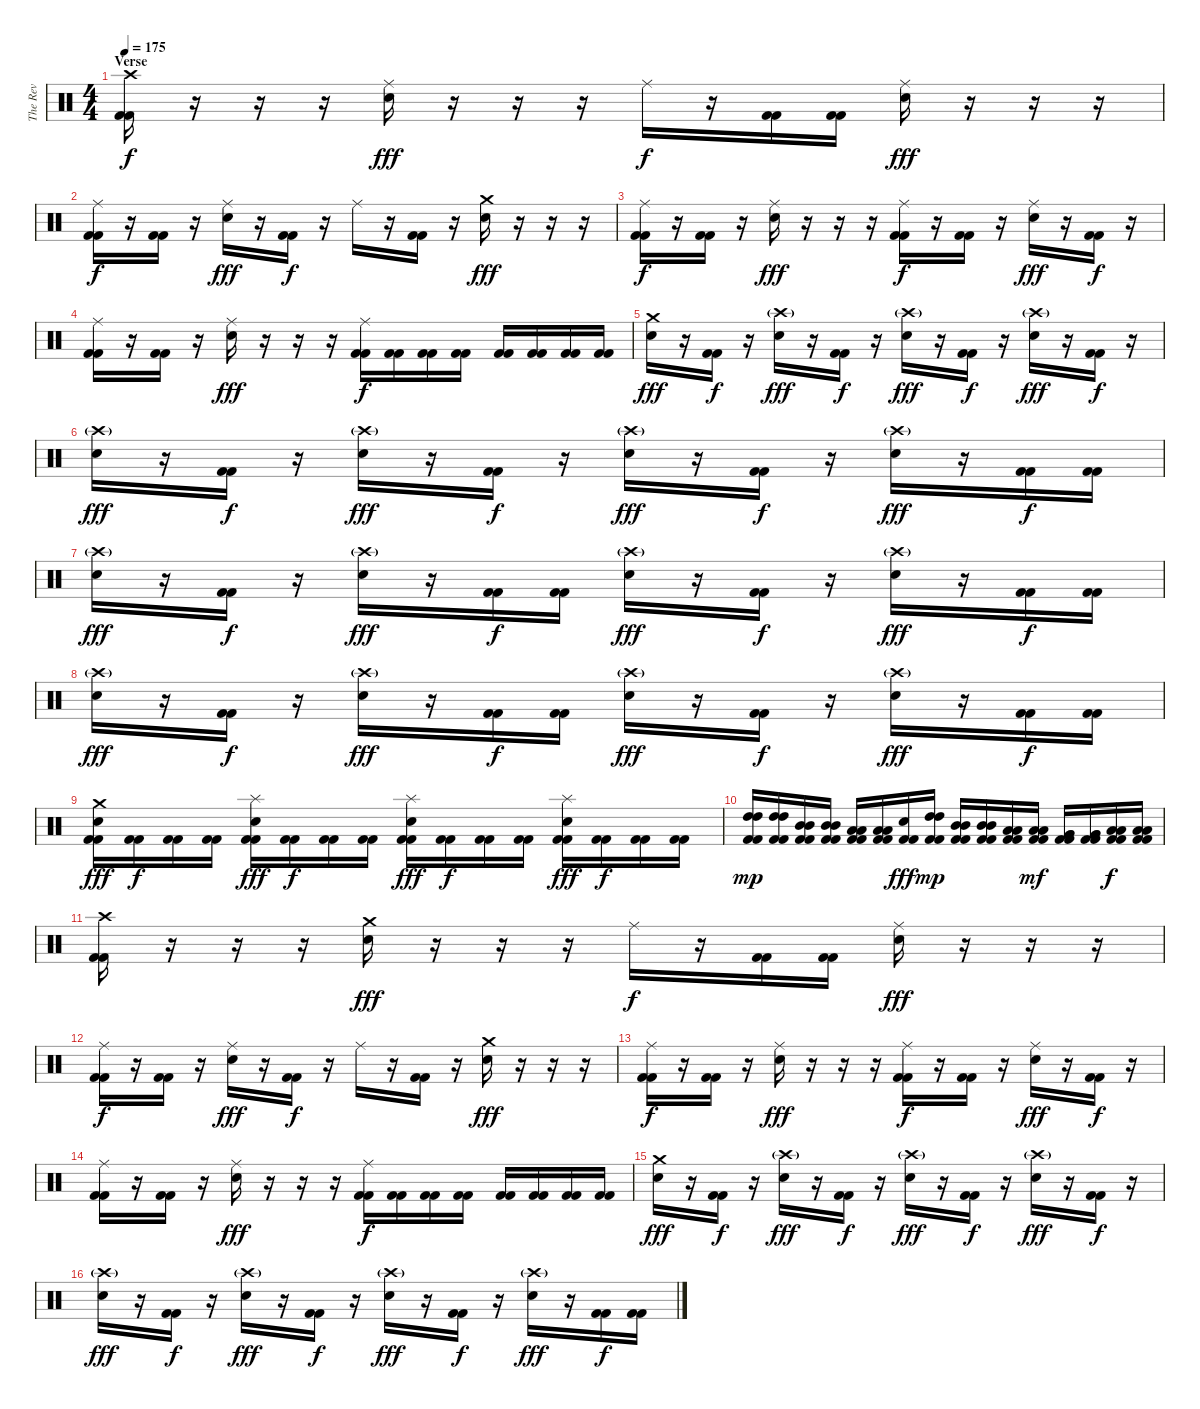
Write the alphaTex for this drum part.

\track ("The Rev" "The Rev") {instrument percussion}
\staff {score}
\articulation defaults
\ts (4 4)
\section ("" "Verse")
\tempo 175
\clef neutral
\ks c
("Crash high (hit)" "Kick (hit) 2" "Kick (hit) 2").16{dy f} r.16 r.16 r.16 ("Ride (middle)" "Electric Snare (hit)").16{dy fff} r.16 r.16 r.16 "Ride (middle)".16{dy f} r.16 ("Kick (hit) 2" "Kick (hit) 2").16 ("Kick (hit) 2" "Kick (hit) 2").16 ("Ride (middle)" "Electric Snare (hit)").16{dy fff} r.16 r.16 r.16 |
("Ride (middle)" "Kick (hit) 2" "Kick (hit) 2").16{dy f} r.16 ("Kick (hit) 2" "Kick (hit) 2").16 r.16 ("Ride (middle)" "Electric Snare (hit)").16{dy fff} r.16 ("Kick (hit) 2" "Kick (hit) 2").16{dy f} r.16 "Ride (middle)".16 r.16 ("Kick (hit) 2" "Kick (hit) 2").16 r.16 ("Crash medium (hit)" "Electric Snare (hit)").16{dy fff} r.16 r.16 r.16 |
("Ride (middle)" "Kick (hit) 2" "Kick (hit) 2").16{dy f} r.16 ("Kick (hit) 2" "Kick (hit) 2").16 r.16 ("Ride (middle)" "Electric Snare (hit)").16{dy fff} r.16 r.16 r.16 ("Ride (middle)" "Kick (hit) 2" "Kick (hit) 2").16{dy f} r.16 ("Kick (hit) 2" "Kick (hit) 2").16 r.16 ("Ride (middle)" "Electric Snare (hit)").16{dy fff} r.16 ("Kick (hit) 2" "Kick (hit) 2").16{dy f} r.16 |
("Ride (middle)" "Kick (hit) 2" "Kick (hit) 2").16 r.16 ("Kick (hit) 2" "Kick (hit) 2").16 r.16 ("Ride (middle)" "Electric Snare (hit)").16{dy fff} r.16 r.16 r.16 ("Ride (middle)" "Kick (hit) 2" "Kick (hit) 2").16{dy f} ("Kick (hit) 2" "Kick (hit) 2").16 ("Kick (hit) 2" "Kick (hit) 2").16 ("Kick (hit) 2" "Kick (hit) 2").16 ("Kick (hit) 2" "Kick (hit) 2").16 ("Kick (hit) 2" "Kick (hit) 2").16 ("Kick (hit) 2" "Kick (hit) 2").16 ("Kick (hit) 2" "Kick (hit) 2").16 |
("Crash medium (hit)" "Electric Snare (hit)").16{dy fff} r.16 ("Kick (hit) 2" "Kick (hit) 2").16{dy f} r.16 ("Crash high (hit)"{g} "Electric Snare (hit)").16{dy fff} r.16 ("Kick (hit) 2" "Kick (hit) 2").16{dy f} r.16 ("Crash high (hit)"{g} "Electric Snare (hit)").16{dy fff} r.16 ("Kick (hit) 2" "Kick (hit) 2").16{dy f} r.16 ("Crash high (hit)"{g} "Electric Snare (hit)").16{dy fff} r.16 ("Kick (hit) 2" "Kick (hit) 2").16{dy f} r.16 |
("Crash high (hit)"{g} "Electric Snare (hit)").16{dy fff} r.16 ("Kick (hit) 2" "Kick (hit) 2").16{dy f} r.16 ("Crash high (hit)"{g} "Electric Snare (hit)").16{dy fff} r.16 ("Kick (hit) 2" "Kick (hit) 2").16{dy f} r.16 ("Crash high (hit)"{g} "Electric Snare (hit)").16{dy fff} r.16 ("Kick (hit) 2" "Kick (hit) 2").16{dy f} r.16 ("Crash high (hit)"{g} "Electric Snare (hit)").16{dy fff} r.16 ("Kick (hit) 2" "Kick (hit) 2").16{dy f} ("Kick (hit) 2" "Kick (hit) 2").16 |
("Crash high (hit)"{g} "Electric Snare (hit)").16{dy fff} r.16 ("Kick (hit) 2" "Kick (hit) 2").16{dy f} r.16 ("Crash high (hit)"{g} "Electric Snare (hit)").16{dy fff} r.16 ("Kick (hit) 2" "Kick (hit) 2").16{dy f} ("Kick (hit) 2" "Kick (hit) 2").16 ("Crash high (hit)"{g} "Electric Snare (hit)").16{dy fff} r.16 ("Kick (hit) 2" "Kick (hit) 2").16{dy f} r.16 ("Crash high (hit)"{g} "Electric Snare (hit)").16{dy fff} r.16 ("Kick (hit) 2" "Kick (hit) 2").16{dy f} ("Kick (hit) 2" "Kick (hit) 2").16 |
("Crash high (hit)"{g} "Electric Snare (hit)").16{dy fff} r.16 ("Kick (hit) 2" "Kick (hit) 2").16{dy f} r.16 ("Crash high (hit)"{g} "Electric Snare (hit)").16{dy fff} r.16 ("Kick (hit) 2" "Kick (hit) 2").16{dy f} ("Kick (hit) 2" "Kick (hit) 2").16 ("Crash high (hit)"{g} "Electric Snare (hit)").16{dy fff} r.16 ("Kick (hit) 2" "Kick (hit) 2").16{dy f} r.16 ("Crash high (hit)"{g} "Electric Snare (hit)").16{dy fff} r.16 ("Kick (hit) 2" "Kick (hit) 2").16{dy f} ("Kick (hit) 2" "Kick (hit) 2").16 |
("Crash medium (hit)" "Electric Snare (hit)" "Kick (hit) 2" "Kick (hit) 2").16{dy fff} ("Kick (hit) 2" "Kick (hit) 2").16{dy f} ("Kick (hit) 2" "Kick (hit) 2").16 ("Kick (hit) 2" "Kick (hit) 2").16 ("Splash (hit)" "Electric Snare (hit)" "Kick (hit) 2" "Kick (hit) 2").16{dy fff} ("Kick (hit) 2" "Kick (hit) 2").16{dy f} ("Kick (hit) 2" "Kick (hit) 2").16 ("Kick (hit) 2" "Kick (hit) 2").16 ("Splash (hit)" "Electric Snare (hit)" "Kick (hit) 2" "Kick (hit) 2").16{dy fff} ("Kick (hit) 2" "Kick (hit) 2").16{dy f} ("Kick (hit) 2" "Kick (hit) 2").16 ("Kick (hit) 2" "Kick (hit) 2").16 ("Splash (hit)" "Electric Snare (hit)" "Kick (hit) 2" "Kick (hit) 2").16{dy fff} ("Kick (hit) 2" "Kick (hit) 2").16{dy f} ("Kick (hit) 2" "Kick (hit) 2").16 ("Kick (hit) 2" "Kick (hit) 2").16 |
("High Tom (hit)" "High Tom (hit)" "Kick (hit) 2" "Kick (hit) 2").16{dy mp} ("High Tom (hit)" "High Tom (hit)" "Kick (hit) 2" "Kick (hit) 2").16 ("Mid Tom (hit)" "Mid Tom (hit)" "Kick (hit) 2" "Kick (hit) 2").16 ("Mid Tom (hit)" "Mid Tom (hit)" "Kick (hit) 2" "Kick (hit) 2").16 ("Low Tom (hit)" "Low Tom (hit)" "Kick (hit) 2" "Kick (hit) 2").16 ("Low Tom (hit)" "Low Tom (hit)" "Kick (hit) 2" "Kick (hit) 2").16 ("Electric Snare (hit)" "Kick (hit) 2" "Kick (hit) 2").16{dy fff} ("High Tom (hit)" "High Tom (hit)" "Kick (hit) 2" "Kick (hit) 2").16{dy mp} ("Mid Tom (hit)" "Mid Tom (hit)" "Kick (hit) 2" "Kick (hit) 2").16 ("Mid Tom (hit)" "Mid Tom (hit)" "Kick (hit) 2" "Kick (hit) 2").16 ("Low Tom (hit)" "Low Tom (hit)" "Kick (hit) 2" "Kick (hit) 2").16 ("Low Tom (hit)" "Low Tom (hit)" "Kick (hit) 2" "Kick (hit) 2").16{dy mf} ("Very Low Tom (hit)" "Very Low Tom (hit)" "Kick (hit) 2" "Kick (hit) 2").16 ("Very Low Tom (hit)" "Very Low Tom (hit)" "Kick (hit) 2" "Kick (hit) 2").16 ("Low Floor Tom (hit)" "Low Floor Tom (hit)" "Kick (hit) 2" "Kick (hit) 2").16{dy f} ("Low Floor Tom (hit)" "Low Floor Tom (hit)" "Kick (hit) 2" "Kick (hit) 2").16 |
("Crash high (hit)" "Kick (hit) 2" "Kick (hit) 2").16 r.16 r.16 r.16 ("Crash medium (hit)" "Electric Snare (hit)").16{dy fff} r.16 r.16 r.16 "Ride (middle)".16{dy f} r.16 ("Kick (hit) 2" "Kick (hit) 2").16 ("Kick (hit) 2" "Kick (hit) 2").16 ("Ride (middle)" "Electric Snare (hit)").16{dy fff} r.16 r.16 r.16 |
("Ride (middle)" "Kick (hit) 2" "Kick (hit) 2").16{dy f} r.16 ("Kick (hit) 2" "Kick (hit) 2").16 r.16 ("Ride (middle)" "Electric Snare (hit)").16{dy fff} r.16 ("Kick (hit) 2" "Kick (hit) 2").16{dy f} r.16 "Ride (middle)".16 r.16 ("Kick (hit) 2" "Kick (hit) 2").16 r.16 ("Crash medium (hit)" "Electric Snare (hit)").16{dy fff} r.16 r.16 r.16 |
("Ride (middle)" "Kick (hit) 2" "Kick (hit) 2").16{dy f} r.16 ("Kick (hit) 2" "Kick (hit) 2").16 r.16 ("Ride (middle)" "Electric Snare (hit)").16{dy fff} r.16 r.16 r.16 ("Ride (middle)" "Kick (hit) 2" "Kick (hit) 2").16{dy f} r.16 ("Kick (hit) 2" "Kick (hit) 2").16 r.16 ("Ride (middle)" "Electric Snare (hit)").16{dy fff} r.16 ("Kick (hit) 2" "Kick (hit) 2").16{dy f} r.16 |
("Ride (middle)" "Kick (hit) 2" "Kick (hit) 2").16 r.16 ("Kick (hit) 2" "Kick (hit) 2").16 r.16 ("Ride (middle)" "Electric Snare (hit)").16{dy fff} r.16 r.16 r.16 ("Ride (middle)" "Kick (hit) 2" "Kick (hit) 2").16{dy f} ("Kick (hit) 2" "Kick (hit) 2").16 ("Kick (hit) 2" "Kick (hit) 2").16 ("Kick (hit) 2" "Kick (hit) 2").16 ("Kick (hit) 2" "Kick (hit) 2").16 ("Kick (hit) 2" "Kick (hit) 2").16 ("Kick (hit) 2" "Kick (hit) 2").16 ("Kick (hit) 2" "Kick (hit) 2").16 |
("Crash medium (hit)" "Electric Snare (hit)").16{dy fff} r.16 ("Kick (hit) 2" "Kick (hit) 2").16{dy f} r.16 ("Crash high (hit)"{g} "Electric Snare (hit)").16{dy fff} r.16 ("Kick (hit) 2" "Kick (hit) 2").16{dy f} r.16 ("Crash high (hit)"{g} "Electric Snare (hit)").16{dy fff} r.16 ("Kick (hit) 2" "Kick (hit) 2").16{dy f} r.16 ("Crash high (hit)"{g} "Electric Snare (hit)").16{dy fff} r.16 ("Kick (hit) 2" "Kick (hit) 2").16{dy f} r.16 |
("Crash high (hit)"{g} "Electric Snare (hit)").16{dy fff} r.16 ("Kick (hit) 2" "Kick (hit) 2").16{dy f} r.16 ("Crash high (hit)"{g} "Electric Snare (hit)").16{dy fff} r.16 ("Kick (hit) 2" "Kick (hit) 2").16{dy f} r.16 ("Crash high (hit)"{g} "Electric Snare (hit)").16{dy fff} r.16 ("Kick (hit) 2" "Kick (hit) 2").16{dy f} r.16 ("Crash high (hit)"{g} "Electric Snare (hit)").16{dy fff} r.16 ("Kick (hit) 2" "Kick (hit) 2").16{dy f} ("Kick (hit) 2" "Kick (hit) 2").16
